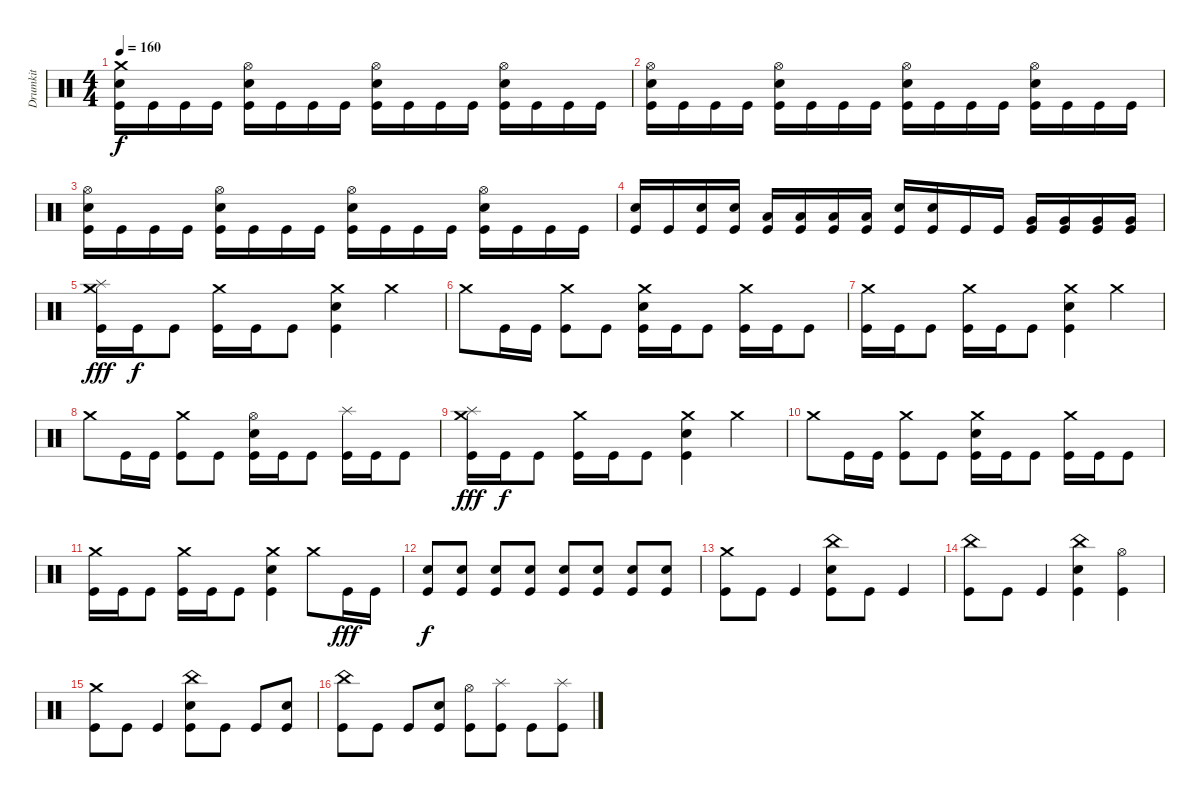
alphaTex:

\track ("Drumkit" "Drumkit") {instrument percussion}
\staff {score}
\articulation defaults
\ts (4 4)
\tempo 160
\clef neutral
\ks c
("Crash medium (hit)" "Snare (hit) 2" "Kick (hit)").16{dy f} "Kick (hit)".16 "Kick (hit)".16 "Kick (hit)".16 ("Hi-Hat (open)" "Snare (hit) 2" "Kick (hit)").16 "Kick (hit)".16 "Kick (hit)".16 "Kick (hit)".16 ("Hi-Hat (open)" "Snare (hit) 2" "Kick (hit)").16 "Kick (hit)".16 "Kick (hit)".16 "Kick (hit)".16 ("Hi-Hat (open)" "Snare (hit) 2" "Kick (hit)").16 "Kick (hit)".16 "Kick (hit)".16 "Kick (hit)".16 |
("Hi-Hat (open)" "Snare (hit) 2" "Kick (hit)").16 "Kick (hit)".16 "Kick (hit)".16 "Kick (hit)".16 ("Hi-Hat (open)" "Snare (hit) 2" "Kick (hit)").16 "Kick (hit)".16 "Kick (hit)".16 "Kick (hit)".16 ("Hi-Hat (open)" "Snare (hit) 2" "Kick (hit)").16 "Kick (hit)".16 "Kick (hit)".16 "Kick (hit)".16 ("Hi-Hat (open)" "Snare (hit) 2" "Kick (hit)").16 "Kick (hit)".16 "Kick (hit)".16 "Kick (hit)".16 |
("Hi-Hat (open)" "Snare (hit) 2" "Kick (hit)").16 "Kick (hit)".16 "Kick (hit)".16 "Kick (hit)".16 ("Hi-Hat (open)" "Snare (hit) 2" "Kick (hit)").16 "Kick (hit)".16 "Kick (hit)".16 "Kick (hit)".16 ("Hi-Hat (open)" "Snare (hit) 2" "Kick (hit)").16 "Kick (hit)".16 "Kick (hit)".16 "Kick (hit)".16 ("Hi-Hat (open)" "Snare (hit) 2" "Kick (hit)").16 "Kick (hit)".16 "Kick (hit)".16 "Kick (hit)".16 |
("Snare (hit) 2" "Kick (hit)").16 "Kick (hit)".16 ("Snare (hit) 2" "Kick (hit)").16 ("Snare (hit) 2" "Kick (hit)").16 ("Low Tom (hit)" "Kick (hit)").16 ("Low Tom (hit)" "Kick (hit)").16 ("Low Tom (hit)" "Kick (hit)").16 ("Low Tom (hit)" "Kick (hit)").16 ("Snare (hit) 2" "Kick (hit)").16 ("Snare (hit) 2" "Kick (hit)").16 "Kick (hit)".16 "Kick (hit)".16 ("Very Low Tom (hit)" "Kick (hit)").16 ("Very Low Tom (hit)" "Kick (hit)").16 ("Very Low Tom (hit)" "Kick (hit)").16 ("Very Low Tom (hit)" "Kick (hit)").16 |
("Splash (hit)" "Crash medium (hit)" "Kick (hit)").16{dy fff} "Kick (hit)".16{dy f} "Kick (hit)".8 ("Crash medium (hit)" "Kick (hit)").16 "Kick (hit)".16 "Kick (hit)".8 ("Crash medium (hit)" "Snare (hit) 2" "Kick (hit)").4 "Crash medium (hit)".4 |
"Crash medium (hit)".8 "Kick (hit)".16 "Kick (hit)".16 ("Crash medium (hit)" "Kick (hit)").8 "Kick (hit)".8 ("Crash medium (hit)" "Snare (hit) 2" "Kick (hit)").16 "Kick (hit)".16 "Kick (hit)".8 ("Crash medium (hit)" "Kick (hit)").16 "Kick (hit)".16 "Kick (hit)".8 |
("Crash medium (hit)" "Kick (hit)").16 "Kick (hit)".16 "Kick (hit)".8 ("Crash medium (hit)" "Kick (hit)").16 "Kick (hit)".16 "Kick (hit)".8 ("Crash medium (hit)" "Snare (hit) 2" "Kick (hit)").4 "Crash medium (hit)".4 |
"Crash medium (hit)".8 "Kick (hit)".16 "Kick (hit)".16 ("Crash medium (hit)" "Kick (hit)").8 "Kick (hit)".8 ("Hi-Hat (open)" "Snare (hit) 2" "Kick (hit)").16 "Kick (hit)".16 "Kick (hit)".8 ("Splash (hit)" "Kick (hit)").16 "Kick (hit)".16 "Kick (hit)".8 |
("Splash (hit)" "Crash medium (hit)" "Kick (hit)").16{dy fff} "Kick (hit)".16{dy f} "Kick (hit)".8 ("Crash medium (hit)" "Kick (hit)").16 "Kick (hit)".16 "Kick (hit)".8 ("Crash medium (hit)" "Snare (hit) 2" "Kick (hit)").4 "Crash medium (hit)".4 |
"Crash medium (hit)".8 "Kick (hit)".16 "Kick (hit)".16 ("Crash medium (hit)" "Kick (hit)").8 "Kick (hit)".8 ("Crash medium (hit)" "Snare (hit) 2" "Kick (hit)").16 "Kick (hit)".16 "Kick (hit)".8 ("Crash medium (hit)" "Kick (hit)").16 "Kick (hit)".16 "Kick (hit)".8 |
("Crash medium (hit)" "Kick (hit)").16 "Kick (hit)".16 "Kick (hit)".8 ("Crash medium (hit)" "Kick (hit)").16 "Kick (hit)".16 "Kick (hit)".8 ("Crash medium (hit)" "Snare (hit) 2" "Kick (hit)").4 "Crash medium (hit)".8 "Kick (hit)".16{dy fff} "Kick (hit)".16 |
("Snare (hit) 2" "Kick (hit)").8{dy f} ("Snare (hit) 2" "Kick (hit)").8 ("Snare (hit) 2" "Kick (hit)").8 ("Snare (hit) 2" "Kick (hit)").8 ("Snare (hit) 2" "Kick (hit)").8 ("Snare (hit) 2" "Kick (hit)").8 ("Snare (hit) 2" "Kick (hit)").8 ("Snare (hit) 2" "Kick (hit)").8 |
("Crash medium (hit)" "Kick (hit)").8 "Kick (hit)".8 "Kick (hit)".4 ("China (hit)" "Snare (hit) 2" "Kick (hit)").8 "Kick (hit)".8 "Kick (hit)".4 |
("China (hit)" "Kick (hit)").8 "Kick (hit)".8 "Kick (hit)".4 ("China (hit)" "Snare (hit) 2" "Kick (hit)").4 ("Hi-Hat (open)" "Kick (hit)").4 |
("Crash medium (hit)" "Kick (hit)").8 "Kick (hit)".8 "Kick (hit)".4 ("China (hit)" "Snare (hit) 2" "Kick (hit)").8 "Kick (hit)".8 "Kick (hit)".8 ("Snare (hit) 2" "Kick (hit)").8 |
("China (hit)" "Kick (hit)").8 "Kick (hit)".8 "Kick (hit)".8 ("Snare (hit) 2" "Kick (hit)").8 ("Hi-Hat (open)" "Kick (hit)").8 ("Splash (hit)" "Kick (hit)").8 "Kick (hit)".8 ("Splash (hit)" "Kick (hit)").8
